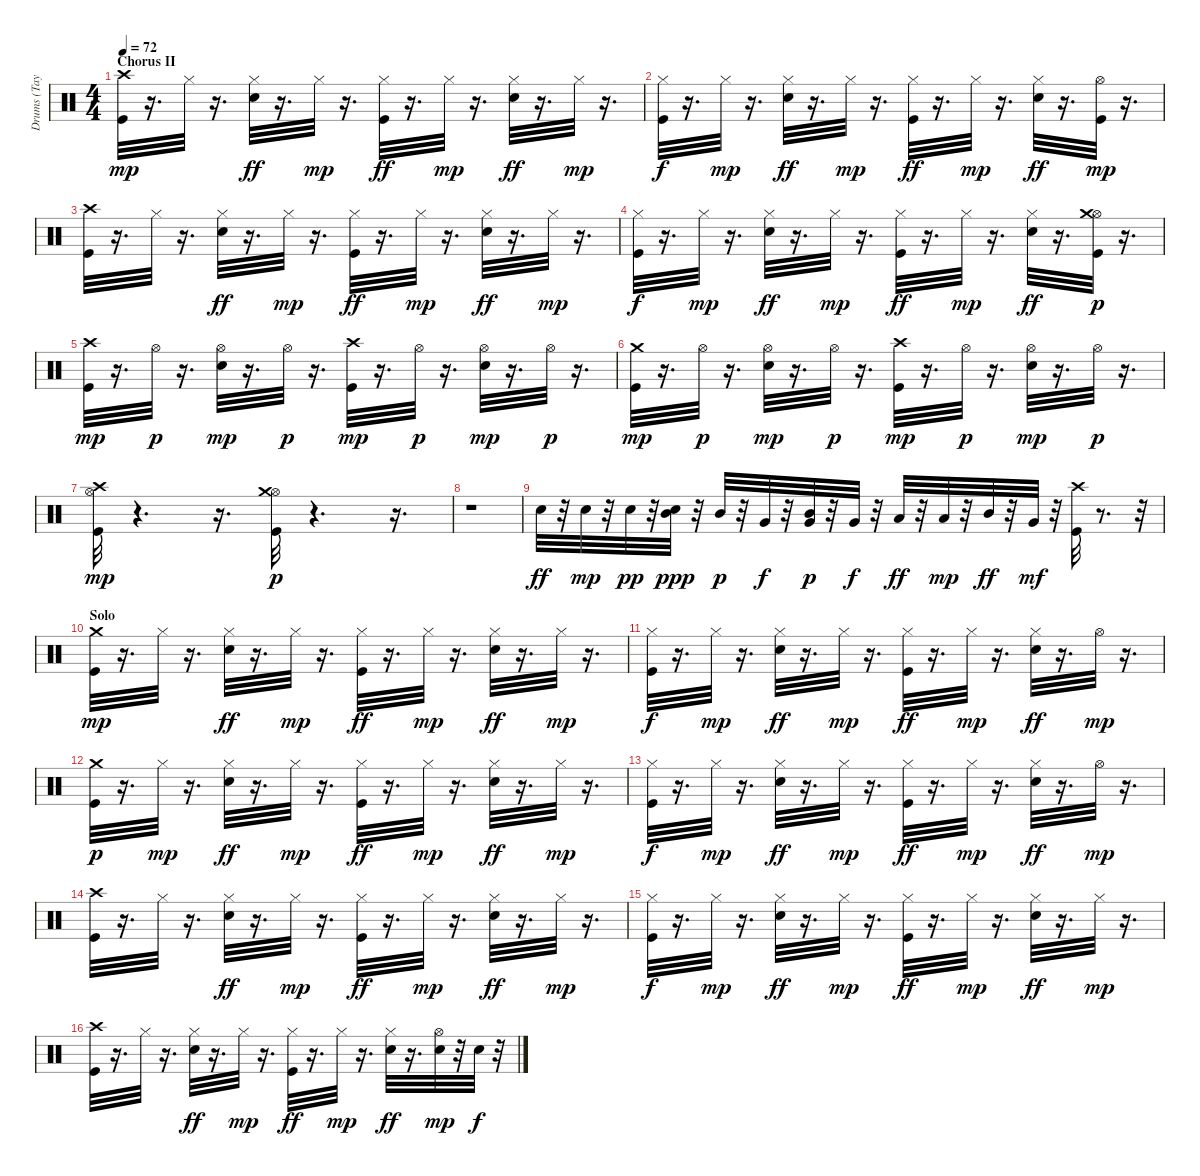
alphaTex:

\track ("Drums (Taylor)" "Drums (Tay") {instrument percussion}
\staff {score}
\articulation defaults
\ts (4 4)
\section ("" "Chorus II")
\tempo 72
\clef neutral
\ks c
("Kick (hit)" "Crash high (hit)").32{dy mp} r.16{d} "Hi-Hat (closed)".32 r.16{d} ("Electric Snare (hit)" "Hi-Hat (closed)").32{dy ff} r.16{d} "Hi-Hat (closed)".32{dy mp} r.16{d} ("Kick (hit)" "Hi-Hat (closed)").32{dy ff} r.16{d} "Hi-Hat (closed)".32{dy mp} r.16{d} ("Electric Snare (hit)" "Hi-Hat (closed)").32{dy ff} r.16{d} "Hi-Hat (closed)".32{dy mp} r.16{d} |
("Kick (hit)" "Hi-Hat (closed)").32{dy f} r.16{d} "Hi-Hat (closed)".32{dy mp} r.16{d} ("Electric Snare (hit)" "Hi-Hat (closed)").32{dy ff} r.16{d} "Hi-Hat (closed)".32{dy mp} r.16{d} ("Kick (hit)" "Hi-Hat (closed)").32{dy ff} r.16{d} "Hi-Hat (closed)".32{dy mp} r.16{d} ("Electric Snare (hit)" "Hi-Hat (closed)").32{dy ff} r.16{d} ("Kick (hit)" "Hi-Hat (open)").32{dy mp} r.16{d} |
("Kick (hit)" "Crash high (hit)").32 r.16{d} "Hi-Hat (closed)".32 r.16{d} ("Electric Snare (hit)" "Hi-Hat (closed)").32{dy ff} r.16{d} "Hi-Hat (closed)".32{dy mp} r.16{d} ("Kick (hit)" "Hi-Hat (closed)").32{dy ff} r.16{d} "Hi-Hat (closed)".32{dy mp} r.16{d} ("Electric Snare (hit)" "Hi-Hat (closed)").32{dy ff} r.16{d} "Hi-Hat (closed)".32{dy mp} r.16{d} |
("Kick (hit)" "Hi-Hat (closed)").32{dy f} r.16{d} "Hi-Hat (closed)".32{dy mp} r.16{d} ("Electric Snare (hit)" "Hi-Hat (closed)").32{dy ff} r.16{d} "Hi-Hat (closed)".32{dy mp} r.16{d} ("Kick (hit)" "Hi-Hat (closed)").32{dy ff} r.16{d} "Hi-Hat (closed)".32{dy mp} r.16{d} ("Electric Snare (hit)" "Hi-Hat (closed)").32{dy ff} r.16{d} ("Kick (hit)" "Hi-Hat (open)" "Crash medium (hit)").32{dy p} r.16{d} |
("Kick (hit)" "Crash high (hit)").32{dy mp} r.16{d} "Hi-Hat (open)".32{dy p} r.16{d} ("Electric Snare (hit)" "Hi-Hat (open)").32{dy mp} r.16{d} "Hi-Hat (open)".32{dy p} r.16{d} ("Kick (hit)" "Crash high (hit)").32{dy mp} r.16{d} "Hi-Hat (open)".32{dy p} r.16{d} ("Electric Snare (hit)" "Hi-Hat (open)").32{dy mp} r.16{d} "Hi-Hat (open)".32{dy p} r.16{d} |
("Kick (hit)" "Crash medium (hit)").32{dy mp} r.16{d} "Hi-Hat (open)".32{dy p} r.16{d} ("Electric Snare (hit)" "Hi-Hat (open)").32{dy mp} r.16{d} "Hi-Hat (open)".32{dy p} r.16{d} ("Kick (hit)" "Crash high (hit)").32{dy mp} r.16{d} "Hi-Hat (open)".32{dy p} r.16{d} ("Electric Snare (hit)" "Hi-Hat (open)").32{dy mp} r.16{d} "Hi-Hat (open)".32{dy p} r.16{d} |
("Kick (hit)" "Hi-Hat (open)" "Crash high (hit)").32{dy mp} r.4{d} r.16{d} ("Kick (hit)" "Hi-Hat (open)" "Crash medium (hit)").32{dy p} r.4{d} r.16{d} |
r.1 |
"Electric Snare (hit)".32{dy ff} r.32 "Electric Snare (hit)".32{dy mp} r.32 "Electric Snare (hit)".32{dy pp} r.32 ("Electric Snare (hit)" "Mid Tom (hit)").32{dy ppp} r.32 "Mid Tom (hit)".32{dy p} r.32 "Very Low Tom (hit)".32{dy f} r.32 ("Very Low Tom (hit)" "Mid Tom (hit)").32{dy p} r.32 "Very Low Tom (hit)".32{dy f} r.32 "Low Tom (hit)".32{dy ff} r.32 "Low Tom (hit)".32{dy mp} r.32 "Mid Tom (hit)".32{dy ff} r.32 "Very Low Tom (hit)".32{dy mf} r.32 ("Kick (hit)" "Crash high (hit)").32 r.8{d} r.32 |
\section ("" "Solo")
("Kick (hit)" "Crash medium (hit)").32{dy mp} r.16{d} "Hi-Hat (closed)".32 r.16{d} ("Electric Snare (hit)" "Hi-Hat (closed)").32{dy ff} r.16{d} "Hi-Hat (closed)".32{dy mp} r.16{d} ("Kick (hit)" "Hi-Hat (closed)").32{dy ff} r.16{d} "Hi-Hat (closed)".32{dy mp} r.16{d} ("Electric Snare (hit)" "Hi-Hat (closed)").32{dy ff} r.16{d} "Hi-Hat (closed)".32{dy mp} r.16{d} |
("Kick (hit)" "Hi-Hat (closed)").32{dy f} r.16{d} "Hi-Hat (closed)".32{dy mp} r.16{d} ("Electric Snare (hit)" "Hi-Hat (closed)").32{dy ff} r.16{d} "Hi-Hat (closed)".32{dy mp} r.16{d} ("Kick (hit)" "Hi-Hat (closed)").32{dy ff} r.16{d} "Hi-Hat (closed)".32{dy mp} r.16{d} ("Electric Snare (hit)" "Hi-Hat (closed)").32{dy ff} r.16{d} "Hi-Hat (open)".32{dy mp} r.16{d} |
("Kick (hit)" "Crash medium (hit)").32{dy p} r.16{d} "Hi-Hat (closed)".32{dy mp} r.16{d} ("Electric Snare (hit)" "Hi-Hat (closed)").32{dy ff} r.16{d} "Hi-Hat (closed)".32{dy mp} r.16{d} ("Kick (hit)" "Hi-Hat (closed)").32{dy ff} r.16{d} "Hi-Hat (closed)".32{dy mp} r.16{d} ("Electric Snare (hit)" "Hi-Hat (closed)").32{dy ff} r.16{d} "Hi-Hat (closed)".32{dy mp} r.16{d} |
("Kick (hit)" "Hi-Hat (closed)").32{dy f} r.16{d} "Hi-Hat (closed)".32{dy mp} r.16{d} ("Electric Snare (hit)" "Hi-Hat (closed)").32{dy ff} r.16{d} "Hi-Hat (closed)".32{dy mp} r.16{d} ("Kick (hit)" "Hi-Hat (closed)").32{dy ff} r.16{d} "Hi-Hat (closed)".32{dy mp} r.16{d} ("Electric Snare (hit)" "Hi-Hat (closed)").32{dy ff} r.16{d} "Hi-Hat (open)".32{dy mp} r.16{d} |
("Kick (hit)" "Crash high (hit)").32 r.16{d} "Hi-Hat (closed)".32 r.16{d} ("Electric Snare (hit)" "Hi-Hat (closed)").32{dy ff} r.16{d} "Hi-Hat (closed)".32{dy mp} r.16{d} ("Kick (hit)" "Hi-Hat (closed)").32{dy ff} r.16{d} "Hi-Hat (closed)".32{dy mp} r.16{d} ("Electric Snare (hit)" "Hi-Hat (closed)").32{dy ff} r.16{d} "Hi-Hat (closed)".32{dy mp} r.16{d} |
("Kick (hit)" "Hi-Hat (closed)").32{dy f} r.16{d} "Hi-Hat (closed)".32{dy mp} r.16{d} ("Electric Snare (hit)" "Hi-Hat (closed)").32{dy ff} r.16{d} "Hi-Hat (closed)".32{dy mp} r.16{d} ("Kick (hit)" "Hi-Hat (closed)").32{dy ff} r.16{d} "Hi-Hat (closed)".32{dy mp} r.16{d} ("Electric Snare (hit)" "Hi-Hat (closed)").32{dy ff} r.16{d} "Hi-Hat (closed)".32{dy mp} r.16{d} |
("Kick (hit)" "Crash high (hit)").32 r.16{d} "Hi-Hat (closed)".32 r.16{d} ("Electric Snare (hit)" "Hi-Hat (closed)").32{dy ff} r.16{d} "Hi-Hat (closed)".32{dy mp} r.16{d} ("Kick (hit)" "Hi-Hat (closed)").32{dy ff} r.16{d} "Hi-Hat (closed)".32{dy mp} r.16{d} ("Electric Snare (hit)" "Hi-Hat (closed)").32{dy ff} r.16{d} ("Electric Snare (hit)" "Hi-Hat (open)").32{dy mp} r.32 "Electric Snare (hit)".32{dy f} r.32
